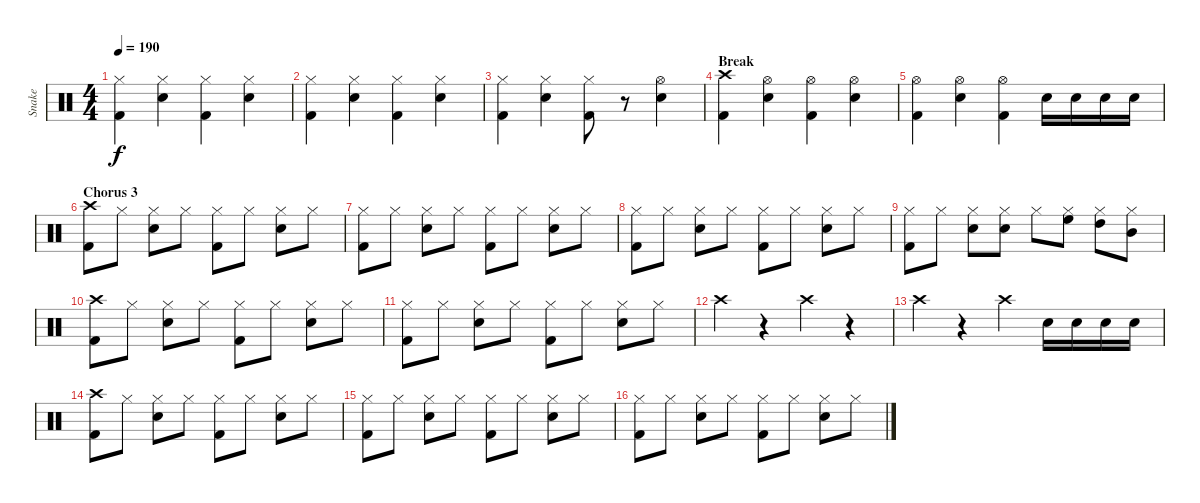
\track ("Snake" "Snake") {instrument percussion}
\staff {score}
\articulation defaults
\ts (4 4)
\tempo 190
\clef neutral
\ks c
("Hi-Hat (closed)" "Kick (hit) 2").4{dy f} ("Hi-Hat (closed)" "Snare (hit) 2").4 ("Hi-Hat (closed)" "Kick (hit) 2").4 ("Hi-Hat (closed)" "Snare (hit) 2").4 |
("Hi-Hat (closed)" "Kick (hit) 2").4 ("Hi-Hat (closed)" "Snare (hit) 2").4 ("Hi-Hat (closed)" "Kick (hit) 2").4 ("Hi-Hat (closed)" "Snare (hit) 2").4 |
("Hi-Hat (closed)" "Kick (hit) 2").4 ("Hi-Hat (closed)" "Snare (hit) 2").4 ("Hi-Hat (closed)" "Kick (hit) 2").8 r.8 ("Hi-Hat (open)" "Snare (hit) 2").4 |
\section ("" "Break")
("Crash high (hit)" "Kick (hit) 2").4 ("Hi-Hat (open)" "Snare (hit) 2").4 ("Hi-Hat (open)" "Kick (hit) 2").4 ("Hi-Hat (open)" "Snare (hit) 2").4 |
("Hi-Hat (open)" "Kick (hit) 2").4 ("Hi-Hat (open)" "Snare (hit) 2").4 ("Hi-Hat (open)" "Kick (hit) 2").4 "Snare (hit) 2".16 "Snare (hit) 2".16 "Snare (hit) 2".16 "Snare (hit) 2".16 |
\section ("" "Chorus 3")
("Crash high (hit)" "Kick (hit) 2").8 "Hi-Hat (closed)".8 ("Hi-Hat (closed)" "Snare (hit) 2").8 "Hi-Hat (closed)".8 ("Hi-Hat (closed)" "Kick (hit) 2").8 "Hi-Hat (closed)".8 ("Hi-Hat (closed)" "Snare (hit) 2").8 "Hi-Hat (closed)".8 |
("Hi-Hat (closed)" "Kick (hit) 2").8 "Hi-Hat (closed)".8 ("Hi-Hat (closed)" "Snare (hit) 2").8 "Hi-Hat (closed)".8 ("Hi-Hat (closed)" "Kick (hit) 2").8 "Hi-Hat (closed)".8 ("Hi-Hat (closed)" "Snare (hit) 2").8 "Hi-Hat (closed)".8 |
("Hi-Hat (closed)" "Kick (hit) 2").8 "Hi-Hat (closed)".8 ("Hi-Hat (closed)" "Snare (hit) 2").8 "Hi-Hat (closed)".8 ("Hi-Hat (closed)" "Kick (hit) 2").8 "Hi-Hat (closed)".8 ("Hi-Hat (closed)" "Snare (hit) 2").8 "Hi-Hat (closed)".8 |
("Hi-Hat (closed)" "Kick (hit) 2").8 "Hi-Hat (closed)".8 ("Hi-Hat (closed)" "Snare (hit) 2").8 ("Hi-Hat (closed)" "Snare (hit) 2").8 "Hi-Hat (closed)".8 ("Hi-Hat (closed)" "High Floor Tom (hit)").8 ("Hi-Hat (closed)" "High Tom (hit)").8 ("Hi-Hat (closed)" "Mid Tom (hit)").8 |
("Crash high (hit)" "Kick (hit) 2").8 "Hi-Hat (closed)".8 ("Hi-Hat (closed)" "Snare (hit) 2").8 "Hi-Hat (closed)".8 ("Hi-Hat (closed)" "Kick (hit) 2").8 "Hi-Hat (closed)".8 ("Hi-Hat (closed)" "Snare (hit) 2").8 "Hi-Hat (closed)".8 |
("Hi-Hat (closed)" "Kick (hit) 2").8 "Hi-Hat (closed)".8 ("Hi-Hat (closed)" "Snare (hit) 2").8 "Hi-Hat (closed)".8 ("Hi-Hat (closed)" "Kick (hit) 2").8 "Hi-Hat (closed)".8 ("Hi-Hat (closed)" "Snare (hit) 2").8 "Hi-Hat (closed)".8 |
"Crash high (hit)".4 r.4 "Crash high (hit)".4 r.4 |
"Crash high (hit)".4 r.4 "Crash high (hit)".4 "Snare (hit) 2".16 "Snare (hit) 2".16 "Snare (hit) 2".16 "Snare (hit) 2".16 |
("Crash high (hit)" "Kick (hit) 2").8 "Hi-Hat (closed)".8 ("Hi-Hat (closed)" "Snare (hit) 2").8 "Hi-Hat (closed)".8 ("Hi-Hat (closed)" "Kick (hit) 2").8 "Hi-Hat (closed)".8 ("Hi-Hat (closed)" "Snare (hit) 2").8 "Hi-Hat (closed)".8 |
("Hi-Hat (closed)" "Kick (hit) 2").8 "Hi-Hat (closed)".8 ("Hi-Hat (closed)" "Snare (hit) 2").8 "Hi-Hat (closed)".8 ("Hi-Hat (closed)" "Kick (hit) 2").8 "Hi-Hat (closed)".8 ("Hi-Hat (closed)" "Snare (hit) 2").8 "Hi-Hat (closed)".8 |
("Hi-Hat (closed)" "Kick (hit) 2").8 "Hi-Hat (closed)".8 ("Hi-Hat (closed)" "Snare (hit) 2").8 "Hi-Hat (closed)".8 ("Hi-Hat (closed)" "Kick (hit) 2").8 "Hi-Hat (closed)".8 ("Hi-Hat (closed)" "Snare (hit) 2").8 "Hi-Hat (closed)".8
